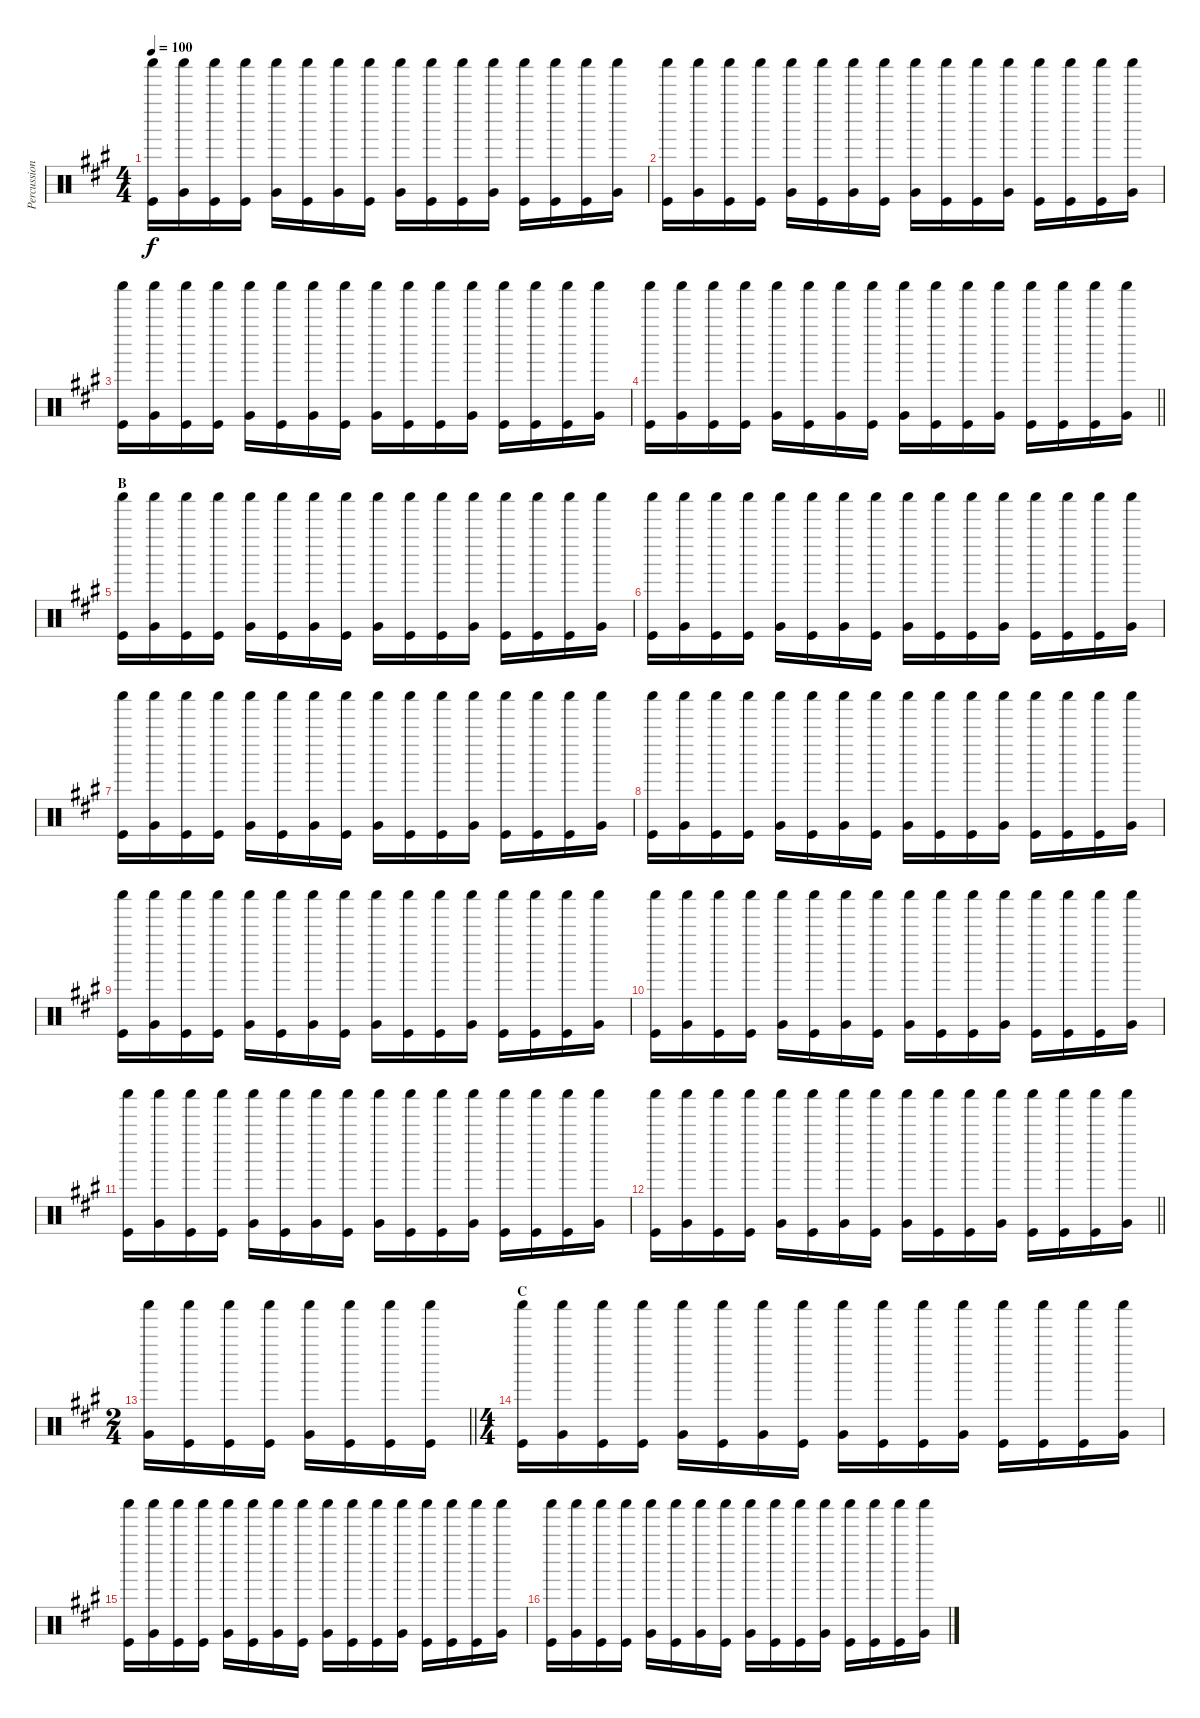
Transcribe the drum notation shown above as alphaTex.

\track ("Percussion" "Percussion") {instrument percussion}
\staff {score}
\articulation defaults
\ts (4 4)
\tempo 100
\clef neutral
\ks a
("Shaker (hit)" "Kick (hit)").16{dy f} ("Shaker (hit)" "Very Low Tom (hit)").16 ("Shaker (hit)" "Kick (hit)").16 ("Shaker (hit)" "Kick (hit)").16 ("Shaker (hit)" "Very Low Tom (hit)").16 ("Shaker (hit)" "Kick (hit)").16 ("Shaker (hit)" "Very Low Tom (hit)").16 ("Shaker (hit)" "Kick (hit)").16 ("Shaker (hit)" "Very Low Tom (hit)").16 ("Shaker (hit)" "Kick (hit)").16 ("Shaker (hit)" "Kick (hit)").16 ("Shaker (hit)" "Very Low Tom (hit)").16 ("Shaker (hit)" "Kick (hit)").16 ("Shaker (hit)" "Kick (hit)").16 ("Shaker (hit)" "Kick (hit)").16 ("Shaker (hit)" "Very Low Tom (hit)").16 |
("Shaker (hit)" "Kick (hit)").16 ("Shaker (hit)" "Very Low Tom (hit)").16 ("Shaker (hit)" "Kick (hit)").16 ("Shaker (hit)" "Kick (hit)").16 ("Shaker (hit)" "Very Low Tom (hit)").16 ("Shaker (hit)" "Kick (hit)").16 ("Shaker (hit)" "Very Low Tom (hit)").16 ("Shaker (hit)" "Kick (hit)").16 ("Shaker (hit)" "Very Low Tom (hit)").16 ("Shaker (hit)" "Kick (hit)").16 ("Shaker (hit)" "Kick (hit)").16 ("Shaker (hit)" "Very Low Tom (hit)").16 ("Shaker (hit)" "Kick (hit)").16 ("Shaker (hit)" "Kick (hit)").16 ("Shaker (hit)" "Kick (hit)").16 ("Shaker (hit)" "Very Low Tom (hit)").16 |
("Shaker (hit)" "Kick (hit)").16 ("Shaker (hit)" "Very Low Tom (hit)").16 ("Shaker (hit)" "Kick (hit)").16 ("Shaker (hit)" "Kick (hit)").16 ("Shaker (hit)" "Very Low Tom (hit)").16 ("Shaker (hit)" "Kick (hit)").16 ("Shaker (hit)" "Very Low Tom (hit)").16 ("Shaker (hit)" "Kick (hit)").16 ("Shaker (hit)" "Very Low Tom (hit)").16 ("Shaker (hit)" "Kick (hit)").16 ("Shaker (hit)" "Kick (hit)").16 ("Shaker (hit)" "Very Low Tom (hit)").16 ("Shaker (hit)" "Kick (hit)").16 ("Shaker (hit)" "Kick (hit)").16 ("Shaker (hit)" "Kick (hit)").16 ("Shaker (hit)" "Very Low Tom (hit)").16 |
\barLineRight lightlight
("Shaker (hit)" "Kick (hit)").16 ("Shaker (hit)" "Very Low Tom (hit)").16 ("Shaker (hit)" "Kick (hit)").16 ("Shaker (hit)" "Kick (hit)").16 ("Shaker (hit)" "Very Low Tom (hit)").16 ("Shaker (hit)" "Kick (hit)").16 ("Shaker (hit)" "Very Low Tom (hit)").16 ("Shaker (hit)" "Kick (hit)").16 ("Shaker (hit)" "Very Low Tom (hit)").16 ("Shaker (hit)" "Kick (hit)").16 ("Shaker (hit)" "Kick (hit)").16 ("Shaker (hit)" "Very Low Tom (hit)").16 ("Shaker (hit)" "Kick (hit)").16 ("Shaker (hit)" "Kick (hit)").16 ("Shaker (hit)" "Kick (hit)").16 ("Shaker (hit)" "Very Low Tom (hit)").16 |
\section ("" "B")
("Shaker (hit)" "Kick (hit)").16 ("Shaker (hit)" "Very Low Tom (hit)").16 ("Shaker (hit)" "Kick (hit)").16 ("Shaker (hit)" "Kick (hit)").16 ("Shaker (hit)" "Very Low Tom (hit)").16 ("Shaker (hit)" "Kick (hit)").16 ("Shaker (hit)" "Very Low Tom (hit)").16 ("Shaker (hit)" "Kick (hit)").16 ("Shaker (hit)" "Very Low Tom (hit)").16 ("Shaker (hit)" "Kick (hit)").16 ("Shaker (hit)" "Kick (hit)").16 ("Shaker (hit)" "Very Low Tom (hit)").16 ("Shaker (hit)" "Kick (hit)").16 ("Shaker (hit)" "Kick (hit)").16 ("Shaker (hit)" "Kick (hit)").16 ("Shaker (hit)" "Very Low Tom (hit)").16 |
("Shaker (hit)" "Kick (hit)").16 ("Shaker (hit)" "Very Low Tom (hit)").16 ("Shaker (hit)" "Kick (hit)").16 ("Shaker (hit)" "Kick (hit)").16 ("Shaker (hit)" "Very Low Tom (hit)").16 ("Shaker (hit)" "Kick (hit)").16 ("Shaker (hit)" "Very Low Tom (hit)").16 ("Shaker (hit)" "Kick (hit)").16 ("Shaker (hit)" "Very Low Tom (hit)").16 ("Shaker (hit)" "Kick (hit)").16 ("Shaker (hit)" "Kick (hit)").16 ("Shaker (hit)" "Very Low Tom (hit)").16 ("Shaker (hit)" "Kick (hit)").16 ("Shaker (hit)" "Kick (hit)").16 ("Shaker (hit)" "Kick (hit)").16 ("Shaker (hit)" "Very Low Tom (hit)").16 |
("Shaker (hit)" "Kick (hit)").16 ("Shaker (hit)" "Very Low Tom (hit)").16 ("Shaker (hit)" "Kick (hit)").16 ("Shaker (hit)" "Kick (hit)").16 ("Shaker (hit)" "Very Low Tom (hit)").16 ("Shaker (hit)" "Kick (hit)").16 ("Shaker (hit)" "Very Low Tom (hit)").16 ("Shaker (hit)" "Kick (hit)").16 ("Shaker (hit)" "Very Low Tom (hit)").16 ("Shaker (hit)" "Kick (hit)").16 ("Shaker (hit)" "Kick (hit)").16 ("Shaker (hit)" "Very Low Tom (hit)").16 ("Shaker (hit)" "Kick (hit)").16 ("Shaker (hit)" "Kick (hit)").16 ("Shaker (hit)" "Kick (hit)").16 ("Shaker (hit)" "Very Low Tom (hit)").16 |
("Shaker (hit)" "Kick (hit)").16 ("Shaker (hit)" "Very Low Tom (hit)").16 ("Shaker (hit)" "Kick (hit)").16 ("Shaker (hit)" "Kick (hit)").16 ("Shaker (hit)" "Very Low Tom (hit)").16 ("Shaker (hit)" "Kick (hit)").16 ("Shaker (hit)" "Very Low Tom (hit)").16 ("Shaker (hit)" "Kick (hit)").16 ("Shaker (hit)" "Very Low Tom (hit)").16 ("Shaker (hit)" "Kick (hit)").16 ("Shaker (hit)" "Kick (hit)").16 ("Shaker (hit)" "Very Low Tom (hit)").16 ("Shaker (hit)" "Kick (hit)").16 ("Shaker (hit)" "Kick (hit)").16 ("Shaker (hit)" "Kick (hit)").16 ("Shaker (hit)" "Very Low Tom (hit)").16 |
("Shaker (hit)" "Kick (hit)").16 ("Shaker (hit)" "Very Low Tom (hit)").16 ("Shaker (hit)" "Kick (hit)").16 ("Shaker (hit)" "Kick (hit)").16 ("Shaker (hit)" "Very Low Tom (hit)").16 ("Shaker (hit)" "Kick (hit)").16 ("Shaker (hit)" "Very Low Tom (hit)").16 ("Shaker (hit)" "Kick (hit)").16 ("Shaker (hit)" "Very Low Tom (hit)").16 ("Shaker (hit)" "Kick (hit)").16 ("Shaker (hit)" "Kick (hit)").16 ("Shaker (hit)" "Very Low Tom (hit)").16 ("Shaker (hit)" "Kick (hit)").16 ("Shaker (hit)" "Kick (hit)").16 ("Shaker (hit)" "Kick (hit)").16 ("Shaker (hit)" "Very Low Tom (hit)").16 |
("Shaker (hit)" "Kick (hit)").16 ("Shaker (hit)" "Very Low Tom (hit)").16 ("Shaker (hit)" "Kick (hit)").16 ("Shaker (hit)" "Kick (hit)").16 ("Shaker (hit)" "Very Low Tom (hit)").16 ("Shaker (hit)" "Kick (hit)").16 ("Shaker (hit)" "Very Low Tom (hit)").16 ("Shaker (hit)" "Kick (hit)").16 ("Shaker (hit)" "Very Low Tom (hit)").16 ("Shaker (hit)" "Kick (hit)").16 ("Shaker (hit)" "Kick (hit)").16 ("Shaker (hit)" "Very Low Tom (hit)").16 ("Shaker (hit)" "Kick (hit)").16 ("Shaker (hit)" "Kick (hit)").16 ("Shaker (hit)" "Kick (hit)").16 ("Shaker (hit)" "Very Low Tom (hit)").16 |
("Shaker (hit)" "Kick (hit)").16 ("Shaker (hit)" "Very Low Tom (hit)").16 ("Shaker (hit)" "Kick (hit)").16 ("Shaker (hit)" "Kick (hit)").16 ("Shaker (hit)" "Very Low Tom (hit)").16 ("Shaker (hit)" "Kick (hit)").16 ("Shaker (hit)" "Very Low Tom (hit)").16 ("Shaker (hit)" "Kick (hit)").16 ("Shaker (hit)" "Very Low Tom (hit)").16 ("Shaker (hit)" "Kick (hit)").16 ("Shaker (hit)" "Kick (hit)").16 ("Shaker (hit)" "Very Low Tom (hit)").16 ("Shaker (hit)" "Kick (hit)").16 ("Shaker (hit)" "Kick (hit)").16 ("Shaker (hit)" "Kick (hit)").16 ("Shaker (hit)" "Very Low Tom (hit)").16 |
\barLineRight lightlight
("Shaker (hit)" "Kick (hit)").16 ("Shaker (hit)" "Very Low Tom (hit)").16 ("Shaker (hit)" "Kick (hit)").16 ("Shaker (hit)" "Kick (hit)").16 ("Shaker (hit)" "Very Low Tom (hit)").16 ("Shaker (hit)" "Kick (hit)").16 ("Shaker (hit)" "Very Low Tom (hit)").16 ("Shaker (hit)" "Kick (hit)").16 ("Shaker (hit)" "Very Low Tom (hit)").16 ("Shaker (hit)" "Kick (hit)").16 ("Shaker (hit)" "Kick (hit)").16 ("Shaker (hit)" "Very Low Tom (hit)").16 ("Shaker (hit)" "Kick (hit)").16 ("Shaker (hit)" "Kick (hit)").16 ("Shaker (hit)" "Kick (hit)").16 ("Shaker (hit)" "Very Low Tom (hit)").16 |
\ts (2 4)
\barLineRight lightlight
("Shaker (hit)" "Very Low Tom (hit)").16 ("Shaker (hit)" "Kick (hit)").16 ("Shaker (hit)" "Kick (hit)").16 ("Shaker (hit)" "Kick (hit)").16 ("Shaker (hit)" "Very Low Tom (hit)").16 ("Shaker (hit)" "Kick (hit)").16 ("Shaker (hit)" "Kick (hit)").16 ("Shaker (hit)" "Kick (hit)").16 |
\ts (4 4)
\section ("" "C")
("Shaker (hit)" "Kick (hit)").16 ("Shaker (hit)" "Very Low Tom (hit)").16 ("Shaker (hit)" "Kick (hit)").16 ("Shaker (hit)" "Kick (hit)").16 ("Shaker (hit)" "Very Low Tom (hit)").16 ("Shaker (hit)" "Kick (hit)").16 ("Shaker (hit)" "Very Low Tom (hit)").16 ("Shaker (hit)" "Kick (hit)").16 ("Shaker (hit)" "Very Low Tom (hit)").16 ("Shaker (hit)" "Kick (hit)").16 ("Shaker (hit)" "Kick (hit)").16 ("Shaker (hit)" "Very Low Tom (hit)").16 ("Shaker (hit)" "Kick (hit)").16 ("Shaker (hit)" "Kick (hit)").16 ("Shaker (hit)" "Kick (hit)").16 ("Shaker (hit)" "Very Low Tom (hit)").16 |
("Shaker (hit)" "Kick (hit)").16 ("Shaker (hit)" "Very Low Tom (hit)").16 ("Shaker (hit)" "Kick (hit)").16 ("Shaker (hit)" "Kick (hit)").16 ("Shaker (hit)" "Very Low Tom (hit)").16 ("Shaker (hit)" "Kick (hit)").16 ("Shaker (hit)" "Very Low Tom (hit)").16 ("Shaker (hit)" "Kick (hit)").16 ("Shaker (hit)" "Very Low Tom (hit)").16 ("Shaker (hit)" "Kick (hit)").16 ("Shaker (hit)" "Kick (hit)").16 ("Shaker (hit)" "Very Low Tom (hit)").16 ("Shaker (hit)" "Kick (hit)").16 ("Shaker (hit)" "Kick (hit)").16 ("Shaker (hit)" "Kick (hit)").16 ("Shaker (hit)" "Very Low Tom (hit)").16 |
("Shaker (hit)" "Kick (hit)").16 ("Shaker (hit)" "Very Low Tom (hit)").16 ("Shaker (hit)" "Kick (hit)").16 ("Shaker (hit)" "Kick (hit)").16 ("Shaker (hit)" "Very Low Tom (hit)").16 ("Shaker (hit)" "Kick (hit)").16 ("Shaker (hit)" "Very Low Tom (hit)").16 ("Shaker (hit)" "Kick (hit)").16 ("Shaker (hit)" "Very Low Tom (hit)").16 ("Shaker (hit)" "Kick (hit)").16 ("Shaker (hit)" "Kick (hit)").16 ("Shaker (hit)" "Very Low Tom (hit)").16 ("Shaker (hit)" "Kick (hit)").16 ("Shaker (hit)" "Kick (hit)").16 ("Shaker (hit)" "Kick (hit)").16 ("Shaker (hit)" "Very Low Tom (hit)").16
